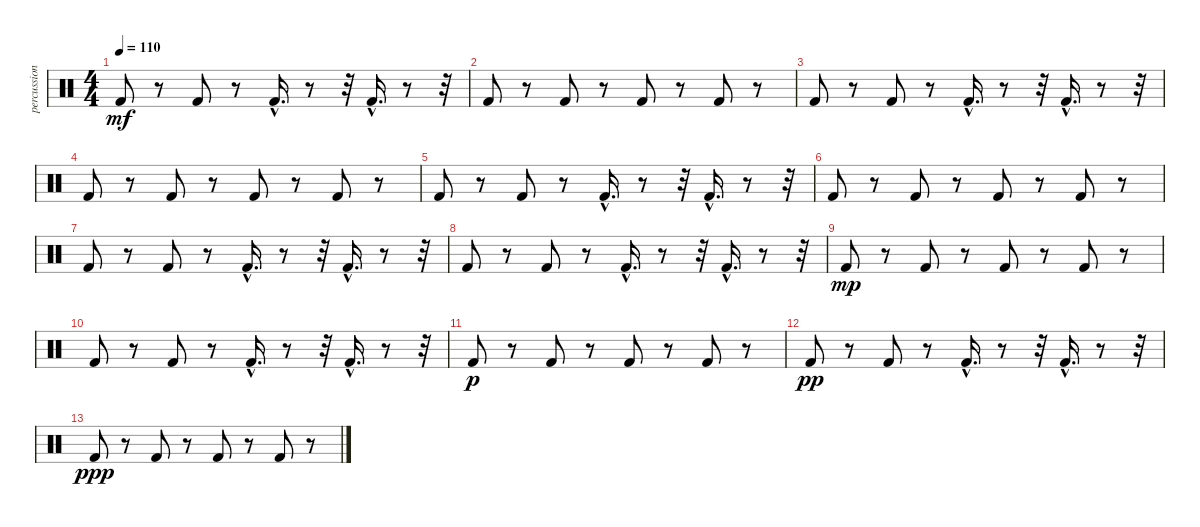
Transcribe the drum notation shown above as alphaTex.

\track ("percussions 1" "percussion") {instrument percussion}
\staff {score}
\articulation defaults
\ts (4 4)
\tempo 110
\clef neutral
\ks c "Kick (hit) 2".8{dy mf}
r.8 "Kick (hit) 2".8 r.8 "Kick (hit) 2"{hac}.16{d} r.8 r.32 "Kick (hit) 2"{hac}.16{d} r.8 r.32 |
"Kick (hit) 2".8 r.8 "Kick (hit) 2".8 r.8 "Kick (hit) 2".8 r.8 "Kick (hit) 2".8 r.8 |
"Kick (hit) 2".8 r.8 "Kick (hit) 2".8 r.8 "Kick (hit) 2"{hac}.16{d} r.8 r.32 "Kick (hit) 2"{hac}.16{d} r.8 r.32 |
"Kick (hit) 2".8 r.8 "Kick (hit) 2".8 r.8 "Kick (hit) 2".8 r.8 "Kick (hit) 2".8 r.8 |
"Kick (hit) 2".8 r.8 "Kick (hit) 2".8 r.8 "Kick (hit) 2"{hac}.16{d} r.8 r.32 "Kick (hit) 2"{hac}.16{d} r.8 r.32 |
"Kick (hit) 2".8 r.8 "Kick (hit) 2".8 r.8 "Kick (hit) 2".8 r.8 "Kick (hit) 2".8 r.8 |
"Kick (hit) 2".8 r.8 "Kick (hit) 2".8 r.8 "Kick (hit) 2"{hac}.16{d} r.8 r.32 "Kick (hit) 2"{hac}.16{d} r.8 r.32 |
"Kick (hit) 2".8 r.8 "Kick (hit) 2".8 r.8 "Kick (hit) 2"{hac}.16{d} r.8 r.32 "Kick (hit) 2"{hac}.16{d} r.8 r.32 |
"Kick (hit) 2".8{dy mp} r.8 "Kick (hit) 2".8 r.8 "Kick (hit) 2".8 r.8 "Kick (hit) 2".8 r.8 |
"Kick (hit) 2".8 r.8 "Kick (hit) 2".8 r.8 "Kick (hit) 2"{hac}.16{d} r.8 r.32 "Kick (hit) 2"{hac}.16{d} r.8 r.32 |
"Kick (hit) 2".8{dy p} r.8 "Kick (hit) 2".8 r.8 "Kick (hit) 2".8 r.8 "Kick (hit) 2".8 r.8 |
"Kick (hit) 2".8{dy pp} r.8 "Kick (hit) 2".8 r.8 "Kick (hit) 2"{hac}.16{d} r.8 r.32 "Kick (hit) 2"{hac}.16{d} r.8 r.32 |
"Kick (hit) 2".8{dy ppp} r.8 "Kick (hit) 2".8 r.8 "Kick (hit) 2".8 r.8 "Kick (hit) 2".8 r.8
